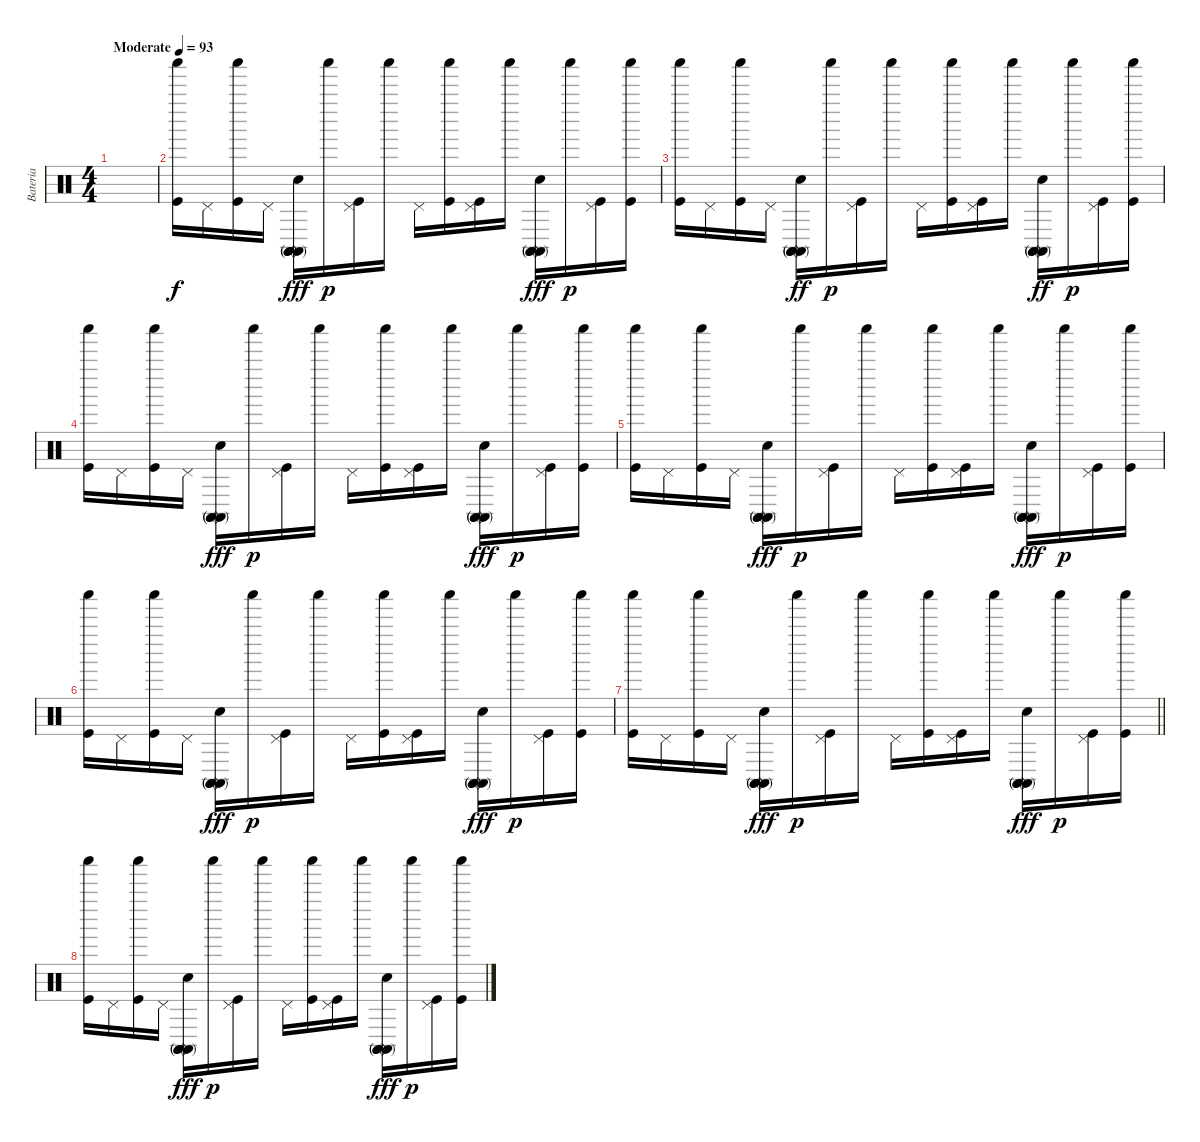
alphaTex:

\track ("Bateria" "Bateria") {instrument percussion}
\staff {score}
\articulation defaults
\ts (4 4)
\tempo (93 "Moderate")
\clef neutral
\ks c
|
("Kick (hit)" "Shaker (hit)").16{volume 13} "Pedal Hi-Hat (hit)".16 ("Kick (hit)" "Shaker (hit)").16 "Pedal Hi-Hat (hit)".16 ("Electric Snare (hit)" "Conga high (mute)" "Conga high (mute)" "Conga high (mute)").16{dy fff} "Shaker (hit)".16{dy p} ("Kick (hit)" "Pedal Hi-Hat (hit)").16 "Shaker (hit)".16 "Pedal Hi-Hat (hit)".16 ("Kick (hit)" "Shaker (hit)").16 ("Kick (hit)" "Pedal Hi-Hat (hit)").16 "Shaker (hit)".16 ("Electric Snare (hit)" "Conga high (mute)" "Conga high (mute)" "Conga high (mute)").16{dy fff} "Shaker (hit)".16{dy p} ("Kick (hit)" "Pedal Hi-Hat (hit)").16 ("Kick (hit)" "Shaker (hit)").16 |
("Kick (hit)" "Shaker (hit)").16{volume 13} "Pedal Hi-Hat (hit)".16 ("Kick (hit)" "Shaker (hit)").16 "Pedal Hi-Hat (hit)".16 ("Electric Snare (hit)" "Conga high (mute)" "Conga high (mute)" "Conga high (mute)").16{dy ff} "Shaker (hit)".16{dy p} ("Kick (hit)" "Pedal Hi-Hat (hit)").16 "Shaker (hit)".16 "Pedal Hi-Hat (hit)".16 ("Kick (hit)" "Shaker (hit)").16 ("Kick (hit)" "Pedal Hi-Hat (hit)").16 "Shaker (hit)".16 ("Electric Snare (hit)" "Conga high (mute)" "Conga high (mute)" "Conga high (mute)").16{dy ff} "Shaker (hit)".16{dy p} ("Kick (hit)" "Pedal Hi-Hat (hit)").16 ("Kick (hit)" "Shaker (hit)").16 |
("Kick (hit)" "Shaker (hit)").16{volume 13} "Pedal Hi-Hat (hit)".16 ("Kick (hit)" "Shaker (hit)").16 "Pedal Hi-Hat (hit)".16 ("Electric Snare (hit)" "Conga high (mute)" "Conga high (mute)" "Conga high (mute)").16{dy fff} "Shaker (hit)".16{dy p} ("Kick (hit)" "Pedal Hi-Hat (hit)").16 "Shaker (hit)".16 "Pedal Hi-Hat (hit)".16 ("Kick (hit)" "Shaker (hit)").16 ("Kick (hit)" "Pedal Hi-Hat (hit)").16 "Shaker (hit)".16 ("Electric Snare (hit)" "Conga high (mute)" "Conga high (mute)" "Conga high (mute)").16{dy fff} "Shaker (hit)".16{dy p} ("Kick (hit)" "Pedal Hi-Hat (hit)").16 ("Kick (hit)" "Shaker (hit)").16 |
("Kick (hit)" "Shaker (hit)").16{volume 13} "Pedal Hi-Hat (hit)".16 ("Kick (hit)" "Shaker (hit)").16 "Pedal Hi-Hat (hit)".16 ("Electric Snare (hit)" "Conga high (mute)" "Conga high (mute)" "Conga high (mute)").16{dy fff} "Shaker (hit)".16{dy p} ("Kick (hit)" "Pedal Hi-Hat (hit)").16 "Shaker (hit)".16 "Pedal Hi-Hat (hit)".16 ("Kick (hit)" "Shaker (hit)").16 ("Kick (hit)" "Pedal Hi-Hat (hit)").16 "Shaker (hit)".16 ("Electric Snare (hit)" "Conga high (mute)" "Conga high (mute)" "Conga high (mute)").16{dy fff} "Shaker (hit)".16{dy p} ("Kick (hit)" "Pedal Hi-Hat (hit)").16 ("Kick (hit)" "Shaker (hit)").16 |
("Kick (hit)" "Shaker (hit)").16{volume 13} "Pedal Hi-Hat (hit)".16 ("Kick (hit)" "Shaker (hit)").16 "Pedal Hi-Hat (hit)".16 ("Electric Snare (hit)" "Conga high (mute)" "Conga high (mute)" "Conga high (mute)").16{dy fff} "Shaker (hit)".16{dy p} ("Kick (hit)" "Pedal Hi-Hat (hit)").16 "Shaker (hit)".16 "Pedal Hi-Hat (hit)".16 ("Kick (hit)" "Shaker (hit)").16 ("Kick (hit)" "Pedal Hi-Hat (hit)").16 "Shaker (hit)".16 ("Electric Snare (hit)" "Conga high (mute)" "Conga high (mute)" "Conga high (mute)").16{dy fff} "Shaker (hit)".16{dy p} ("Kick (hit)" "Pedal Hi-Hat (hit)").16 ("Kick (hit)" "Shaker (hit)").16 |
\barLineRight lightlight
("Kick (hit)" "Shaker (hit)").16{volume 13} "Pedal Hi-Hat (hit)".16 ("Kick (hit)" "Shaker (hit)").16 "Pedal Hi-Hat (hit)".16 ("Electric Snare (hit)" "Conga high (mute)" "Conga high (mute)" "Conga high (mute)").16{dy fff} "Shaker (hit)".16{dy p} ("Kick (hit)" "Pedal Hi-Hat (hit)").16 "Shaker (hit)".16 "Pedal Hi-Hat (hit)".16 ("Kick (hit)" "Shaker (hit)").16 ("Kick (hit)" "Pedal Hi-Hat (hit)").16 "Shaker (hit)".16 ("Electric Snare (hit)" "Conga high (mute)" "Conga high (mute)" "Conga high (mute)").16{dy fff} "Shaker (hit)".16{dy p} ("Kick (hit)" "Pedal Hi-Hat (hit)").16 ("Kick (hit)" "Shaker (hit)").16 |
("Kick (hit)" "Shaker (hit)").16{volume 13} "Pedal Hi-Hat (hit)".16 ("Kick (hit)" "Shaker (hit)").16 "Pedal Hi-Hat (hit)".16 ("Electric Snare (hit)" "Conga high (mute)" "Conga high (mute)" "Conga high (mute)").16{dy fff} "Shaker (hit)".16{dy p} ("Kick (hit)" "Pedal Hi-Hat (hit)").16 "Shaker (hit)".16 "Pedal Hi-Hat (hit)".16 ("Kick (hit)" "Shaker (hit)").16 ("Kick (hit)" "Pedal Hi-Hat (hit)").16 "Shaker (hit)".16 ("Electric Snare (hit)" "Conga high (mute)" "Conga high (mute)" "Conga high (mute)").16{dy fff} "Shaker (hit)".16{dy p} ("Kick (hit)" "Pedal Hi-Hat (hit)").16 ("Kick (hit)" "Shaker (hit)").16
